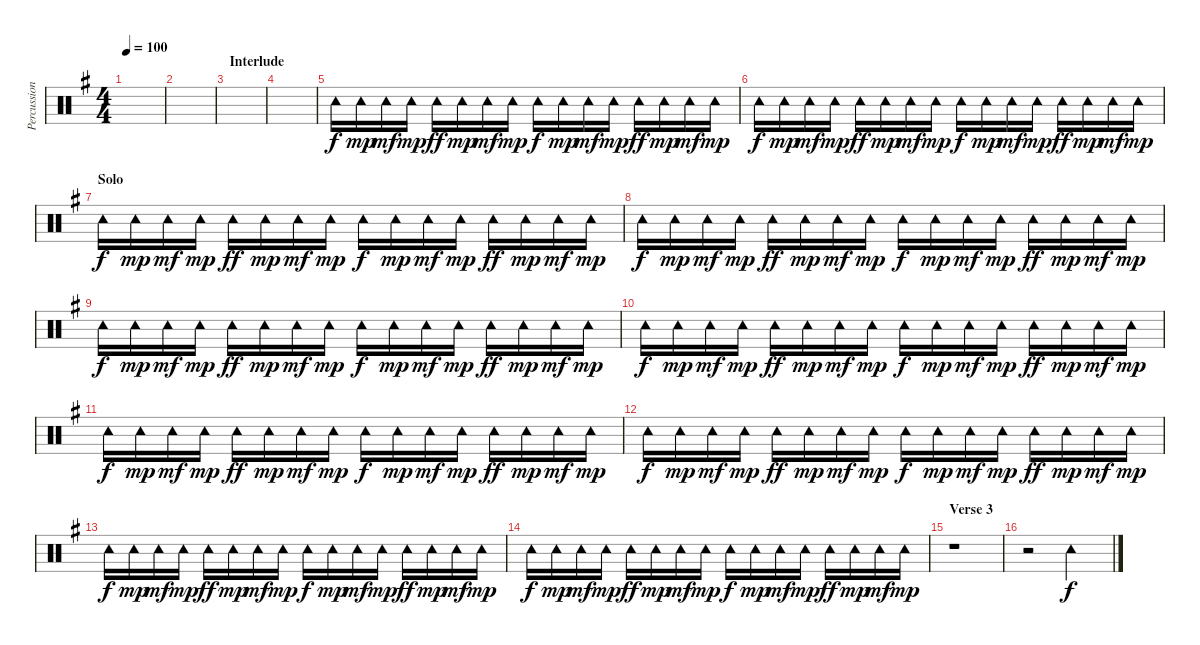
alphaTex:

\track ("Percussion" "Percussion") {instrument percussion}
\staff {score}
\articulation defaults
\ts (4 4)
\tempo 100
\clef neutral
\ks g
|
|
\section ("" "Interlude")
|
|
"Tambourine (hit)".16{dy f} "Tambourine (hit)".16{dy mp} "Tambourine (hit)".16{dy mf} "Tambourine (hit)".16{dy mp} "Tambourine (hit)".16{dy ff} "Tambourine (hit)".16{dy mp} "Tambourine (hit)".16{dy mf} "Tambourine (hit)".16{dy mp} "Tambourine (hit)".16{dy f} "Tambourine (hit)".16{dy mp} "Tambourine (hit)".16{dy mf} "Tambourine (hit)".16{dy mp} "Tambourine (hit)".16{dy ff} "Tambourine (hit)".16{dy mp} "Tambourine (hit)".16{dy mf} "Tambourine (hit)".16{dy mp} |
"Tambourine (hit)".16{dy f} "Tambourine (hit)".16{dy mp} "Tambourine (hit)".16{dy mf} "Tambourine (hit)".16{dy mp} "Tambourine (hit)".16{dy ff} "Tambourine (hit)".16{dy mp} "Tambourine (hit)".16{dy mf} "Tambourine (hit)".16{dy mp} "Tambourine (hit)".16{dy f} "Tambourine (hit)".16{dy mp} "Tambourine (hit)".16{dy mf} "Tambourine (hit)".16{dy mp} "Tambourine (hit)".16{dy ff} "Tambourine (hit)".16{dy mp} "Tambourine (hit)".16{dy mf} "Tambourine (hit)".16{dy mp} |
\section ("" "Solo")
"Tambourine (hit)".16{dy f} "Tambourine (hit)".16{dy mp} "Tambourine (hit)".16{dy mf} "Tambourine (hit)".16{dy mp} "Tambourine (hit)".16{dy ff} "Tambourine (hit)".16{dy mp} "Tambourine (hit)".16{dy mf} "Tambourine (hit)".16{dy mp} "Tambourine (hit)".16{dy f} "Tambourine (hit)".16{dy mp} "Tambourine (hit)".16{dy mf} "Tambourine (hit)".16{dy mp} "Tambourine (hit)".16{dy ff} "Tambourine (hit)".16{dy mp} "Tambourine (hit)".16{dy mf} "Tambourine (hit)".16{dy mp} |
"Tambourine (hit)".16{dy f} "Tambourine (hit)".16{dy mp} "Tambourine (hit)".16{dy mf} "Tambourine (hit)".16{dy mp} "Tambourine (hit)".16{dy ff} "Tambourine (hit)".16{dy mp} "Tambourine (hit)".16{dy mf} "Tambourine (hit)".16{dy mp} "Tambourine (hit)".16{dy f} "Tambourine (hit)".16{dy mp} "Tambourine (hit)".16{dy mf} "Tambourine (hit)".16{dy mp} "Tambourine (hit)".16{dy ff} "Tambourine (hit)".16{dy mp} "Tambourine (hit)".16{dy mf} "Tambourine (hit)".16{dy mp} |
"Tambourine (hit)".16{dy f} "Tambourine (hit)".16{dy mp} "Tambourine (hit)".16{dy mf} "Tambourine (hit)".16{dy mp} "Tambourine (hit)".16{dy ff} "Tambourine (hit)".16{dy mp} "Tambourine (hit)".16{dy mf} "Tambourine (hit)".16{dy mp} "Tambourine (hit)".16{dy f} "Tambourine (hit)".16{dy mp} "Tambourine (hit)".16{dy mf} "Tambourine (hit)".16{dy mp} "Tambourine (hit)".16{dy ff} "Tambourine (hit)".16{dy mp} "Tambourine (hit)".16{dy mf} "Tambourine (hit)".16{dy mp} |
"Tambourine (hit)".16{dy f} "Tambourine (hit)".16{dy mp} "Tambourine (hit)".16{dy mf} "Tambourine (hit)".16{dy mp} "Tambourine (hit)".16{dy ff} "Tambourine (hit)".16{dy mp} "Tambourine (hit)".16{dy mf} "Tambourine (hit)".16{dy mp} "Tambourine (hit)".16{dy f} "Tambourine (hit)".16{dy mp} "Tambourine (hit)".16{dy mf} "Tambourine (hit)".16{dy mp} "Tambourine (hit)".16{dy ff} "Tambourine (hit)".16{dy mp} "Tambourine (hit)".16{dy mf} "Tambourine (hit)".16{dy mp} |
"Tambourine (hit)".16{dy f} "Tambourine (hit)".16{dy mp} "Tambourine (hit)".16{dy mf} "Tambourine (hit)".16{dy mp} "Tambourine (hit)".16{dy ff} "Tambourine (hit)".16{dy mp} "Tambourine (hit)".16{dy mf} "Tambourine (hit)".16{dy mp} "Tambourine (hit)".16{dy f} "Tambourine (hit)".16{dy mp} "Tambourine (hit)".16{dy mf} "Tambourine (hit)".16{dy mp} "Tambourine (hit)".16{dy ff} "Tambourine (hit)".16{dy mp} "Tambourine (hit)".16{dy mf} "Tambourine (hit)".16{dy mp} |
"Tambourine (hit)".16{dy f} "Tambourine (hit)".16{dy mp} "Tambourine (hit)".16{dy mf} "Tambourine (hit)".16{dy mp} "Tambourine (hit)".16{dy ff} "Tambourine (hit)".16{dy mp} "Tambourine (hit)".16{dy mf} "Tambourine (hit)".16{dy mp} "Tambourine (hit)".16{dy f} "Tambourine (hit)".16{dy mp} "Tambourine (hit)".16{dy mf} "Tambourine (hit)".16{dy mp} "Tambourine (hit)".16{dy ff} "Tambourine (hit)".16{dy mp} "Tambourine (hit)".16{dy mf} "Tambourine (hit)".16{dy mp} |
"Tambourine (hit)".16{dy f} "Tambourine (hit)".16{dy mp} "Tambourine (hit)".16{dy mf} "Tambourine (hit)".16{dy mp} "Tambourine (hit)".16{dy ff} "Tambourine (hit)".16{dy mp} "Tambourine (hit)".16{dy mf} "Tambourine (hit)".16{dy mp} "Tambourine (hit)".16{dy f} "Tambourine (hit)".16{dy mp} "Tambourine (hit)".16{dy mf} "Tambourine (hit)".16{dy mp} "Tambourine (hit)".16{dy ff} "Tambourine (hit)".16{dy mp} "Tambourine (hit)".16{dy mf} "Tambourine (hit)".16{dy mp} |
"Tambourine (hit)".16{dy f} "Tambourine (hit)".16{dy mp} "Tambourine (hit)".16{dy mf} "Tambourine (hit)".16{dy mp} "Tambourine (hit)".16{dy ff} "Tambourine (hit)".16{dy mp} "Tambourine (hit)".16{dy mf} "Tambourine (hit)".16{dy mp} "Tambourine (hit)".16{dy f} "Tambourine (hit)".16{dy mp} "Tambourine (hit)".16{dy mf} "Tambourine (hit)".16{dy mp} "Tambourine (hit)".16{dy ff} "Tambourine (hit)".16{dy mp} "Tambourine (hit)".16{dy mf} "Tambourine (hit)".16{dy mp} |
\section ("" "Verse 3")
r.1 |
r.2 "Tambourine (hit)".2{dy f}
